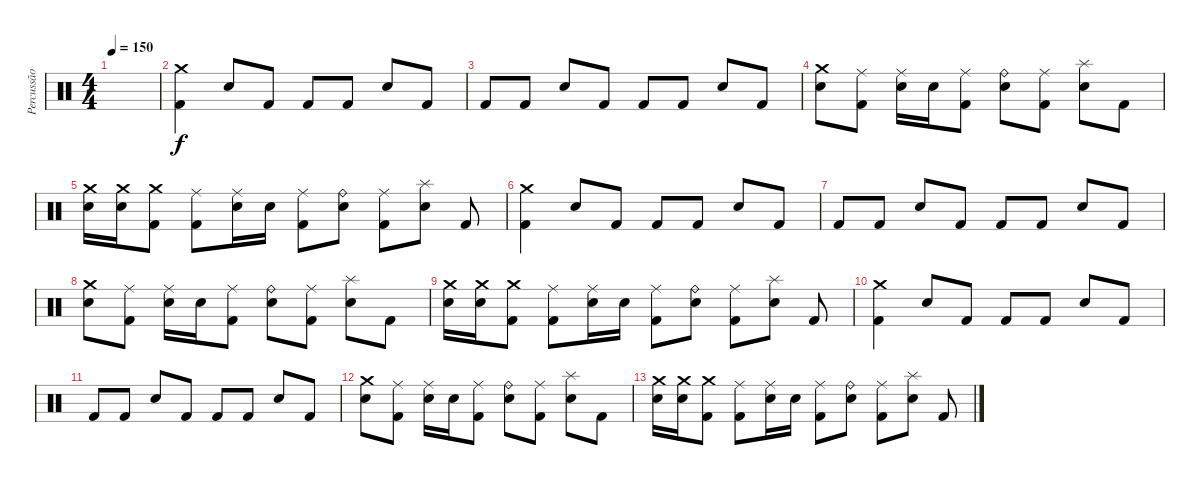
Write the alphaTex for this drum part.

\track ("Percussão" "Percussão") {instrument percussion}
\staff {score}
\articulation defaults
\ts (4 4)
\tempo 150
\clef neutral
\ks c
|
("Kick (hit) 2" "Crash medium (hit)").4 "Snare (hit) 2".8 "Kick (hit) 2".8 "Kick (hit) 2".8 "Kick (hit) 2".8 "Snare (hit) 2".8 "Kick (hit) 2".8 |
"Kick (hit) 2".8 "Kick (hit) 2".8 "Snare (hit) 2".8 "Kick (hit) 2".8 "Kick (hit) 2".8 "Kick (hit) 2".8 "Snare (hit) 2".8 "Kick (hit) 2".8 |
("Snare (hit) 2" "Crash medium (hit)").8 ("Kick (hit) 2" "Ride (middle)").8 ("Snare (hit) 2" "Ride (middle)").16 "Snare (hit) 2".16 ("Kick (hit) 2" "Ride (middle)").8 ("Snare (hit) 2" "Ride (bell)").8 ("Kick (hit) 2" "Ride (middle)").8 ("Snare (hit) 2" "Splash (hit)").8 "Kick (hit) 2".8 |
("Snare (hit) 2" "Crash medium (hit)").16 ("Snare (hit) 2" "Crash medium (hit)").16 ("Kick (hit) 2" "Crash medium (hit)").8 ("Kick (hit) 2" "Ride (middle)").8 ("Snare (hit) 2" "Ride (middle)").16 "Snare (hit) 2".16 ("Kick (hit) 2" "Ride (middle)").8 ("Snare (hit) 2" "Ride (bell)").8 ("Kick (hit) 2" "Ride (middle)").8 ("Snare (hit) 2" "Splash (hit)").8 "Kick (hit) 2".8 |
("Kick (hit) 2" "Crash medium (hit)").4 "Snare (hit) 2".8 "Kick (hit) 2".8 "Kick (hit) 2".8 "Kick (hit) 2".8 "Snare (hit) 2".8 "Kick (hit) 2".8 |
"Kick (hit) 2".8 "Kick (hit) 2".8 "Snare (hit) 2".8 "Kick (hit) 2".8 "Kick (hit) 2".8 "Kick (hit) 2".8 "Snare (hit) 2".8 "Kick (hit) 2".8 |
("Snare (hit) 2" "Crash medium (hit)").8 ("Kick (hit) 2" "Ride (middle)").8 ("Snare (hit) 2" "Ride (middle)").16 "Snare (hit) 2".16 ("Kick (hit) 2" "Ride (middle)").8 ("Snare (hit) 2" "Ride (bell)").8 ("Kick (hit) 2" "Ride (middle)").8 ("Snare (hit) 2" "Splash (hit)").8 "Kick (hit) 2".8 |
("Snare (hit) 2" "Crash medium (hit)").16 ("Snare (hit) 2" "Crash medium (hit)").16 ("Kick (hit) 2" "Crash medium (hit)").8 ("Kick (hit) 2" "Ride (middle)").8 ("Snare (hit) 2" "Ride (middle)").16 "Snare (hit) 2".16 ("Kick (hit) 2" "Ride (middle)").8 ("Snare (hit) 2" "Ride (bell)").8 ("Kick (hit) 2" "Ride (middle)").8 ("Snare (hit) 2" "Splash (hit)").8 "Kick (hit) 2".8 |
("Kick (hit) 2" "Crash medium (hit)").4 "Snare (hit) 2".8 "Kick (hit) 2".8 "Kick (hit) 2".8 "Kick (hit) 2".8 "Snare (hit) 2".8 "Kick (hit) 2".8 |
"Kick (hit) 2".8 "Kick (hit) 2".8 "Snare (hit) 2".8 "Kick (hit) 2".8 "Kick (hit) 2".8 "Kick (hit) 2".8 "Snare (hit) 2".8 "Kick (hit) 2".8 |
("Snare (hit) 2" "Crash medium (hit)").8 ("Kick (hit) 2" "Ride (middle)").8 ("Snare (hit) 2" "Ride (middle)").16 "Snare (hit) 2".16 ("Kick (hit) 2" "Ride (middle)").8 ("Snare (hit) 2" "Ride (bell)").8 ("Kick (hit) 2" "Ride (middle)").8 ("Snare (hit) 2" "Splash (hit)").8 "Kick (hit) 2".8 |
("Snare (hit) 2" "Crash medium (hit)").16 ("Snare (hit) 2" "Crash medium (hit)").16 ("Kick (hit) 2" "Crash medium (hit)").8 ("Kick (hit) 2" "Ride (middle)").8 ("Snare (hit) 2" "Ride (middle)").16 "Snare (hit) 2".16 ("Kick (hit) 2" "Ride (middle)").8 ("Snare (hit) 2" "Ride (bell)").8 ("Kick (hit) 2" "Ride (middle)").8 ("Snare (hit) 2" "Splash (hit)").8 "Kick (hit) 2".8
